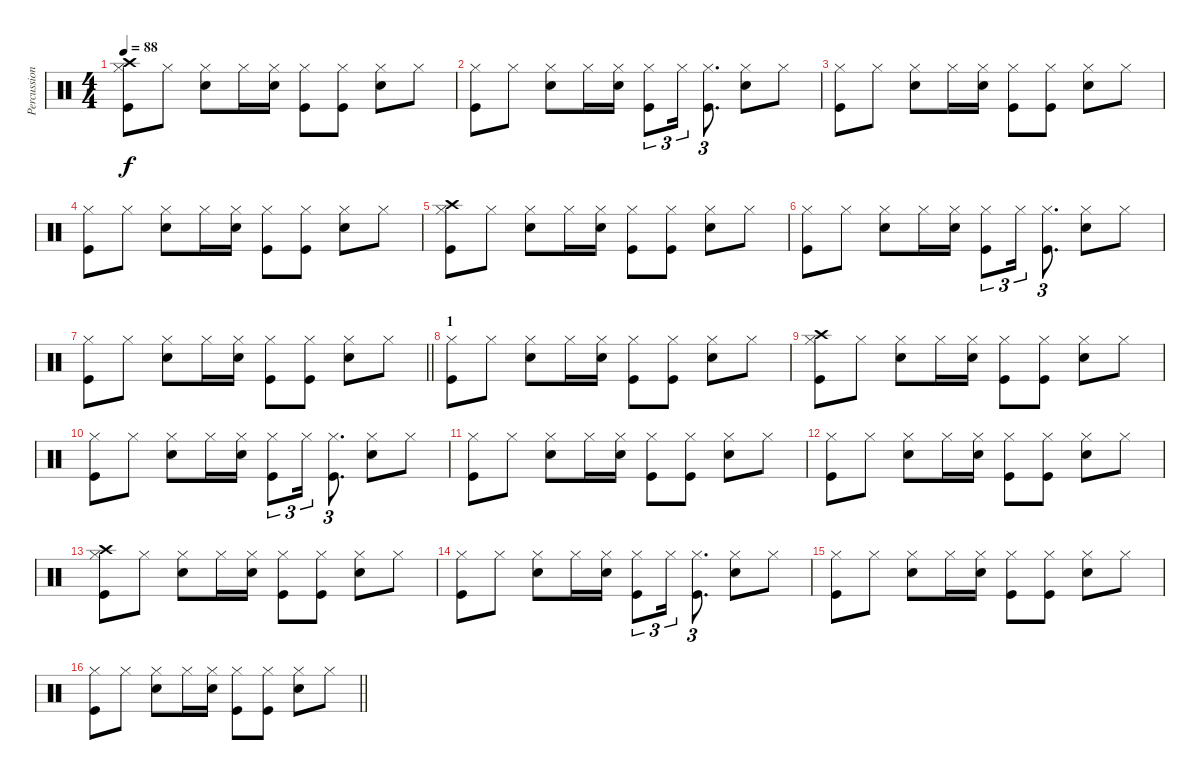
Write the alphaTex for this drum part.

\track ("Percussions" "Percussion") {instrument percussion}
\staff {score}
\articulation defaults
\ts (4 4)
\tempo 88
\clef neutral
\ks c
("Crash high (hit)" "Hi-Hat (closed)" "Kick (hit)").8{dy f} "Hi-Hat (closed)".8 ("Electric Snare (hit)" "Hi-Hat (closed)").8 "Hi-Hat (closed)".16 ("Electric Snare (hit)" "Hi-Hat (closed)").16 ("Hi-Hat (closed)" "Kick (hit)").8 ("Hi-Hat (closed)" "Kick (hit)").8 ("Electric Snare (hit)" "Hi-Hat (closed)").8 "Hi-Hat (closed)".8 |
("Hi-Hat (closed)" "Kick (hit)").8 "Hi-Hat (closed)".8 ("Electric Snare (hit)" "Hi-Hat (closed)").8 "Hi-Hat (closed)".16 ("Electric Snare (hit)" "Hi-Hat (closed)").16 ("Hi-Hat (closed)" "Kick (hit)").8{tu (3 2)} "Hi-Hat (closed)".16{tu (3 2)} ("Hi-Hat (closed)" "Kick (hit)").8{d tu (3 2)} ("Electric Snare (hit)" "Hi-Hat (closed)").8 "Hi-Hat (closed)".8 |
("Hi-Hat (closed)" "Kick (hit)").8 "Hi-Hat (closed)".8 ("Electric Snare (hit)" "Hi-Hat (closed)").8 "Hi-Hat (closed)".16 ("Electric Snare (hit)" "Hi-Hat (closed)").16 ("Hi-Hat (closed)" "Kick (hit)").8 ("Hi-Hat (closed)" "Kick (hit)").8 ("Electric Snare (hit)" "Hi-Hat (closed)").8 "Hi-Hat (closed)".8 |
("Hi-Hat (closed)" "Kick (hit)").8 "Hi-Hat (closed)".8 ("Electric Snare (hit)" "Hi-Hat (closed)").8 "Hi-Hat (closed)".16 ("Electric Snare (hit)" "Hi-Hat (closed)").16 ("Hi-Hat (closed)" "Kick (hit)").8 ("Hi-Hat (closed)" "Kick (hit)").8 ("Electric Snare (hit)" "Hi-Hat (closed)").8 "Hi-Hat (closed)".8 |
("Crash high (hit)" "Hi-Hat (closed)" "Kick (hit)").8 "Hi-Hat (closed)".8 ("Electric Snare (hit)" "Hi-Hat (closed)").8 "Hi-Hat (closed)".16 ("Electric Snare (hit)" "Hi-Hat (closed)").16 ("Hi-Hat (closed)" "Kick (hit)").8 ("Hi-Hat (closed)" "Kick (hit)").8 ("Electric Snare (hit)" "Hi-Hat (closed)").8 "Hi-Hat (closed)".8 |
("Hi-Hat (closed)" "Kick (hit)").8 "Hi-Hat (closed)".8 ("Electric Snare (hit)" "Hi-Hat (closed)").8 "Hi-Hat (closed)".16 ("Electric Snare (hit)" "Hi-Hat (closed)").16 ("Hi-Hat (closed)" "Kick (hit)").8{tu (3 2)} "Hi-Hat (closed)".16{tu (3 2)} ("Hi-Hat (closed)" "Kick (hit)").8{d tu (3 2)} ("Electric Snare (hit)" "Hi-Hat (closed)").8 "Hi-Hat (closed)".8 |
\barLineRight lightlight
("Hi-Hat (closed)" "Kick (hit)").8 "Hi-Hat (closed)".8 ("Electric Snare (hit)" "Hi-Hat (closed)").8 "Hi-Hat (closed)".16 ("Electric Snare (hit)" "Hi-Hat (closed)").16 ("Hi-Hat (closed)" "Kick (hit)").8 ("Hi-Hat (closed)" "Kick (hit)").8 ("Electric Snare (hit)" "Hi-Hat (closed)").8 "Hi-Hat (closed)".8 |
\section ("" "1")
("Hi-Hat (closed)" "Kick (hit)").8 "Hi-Hat (closed)".8 ("Electric Snare (hit)" "Hi-Hat (closed)").8 "Hi-Hat (closed)".16 ("Electric Snare (hit)" "Hi-Hat (closed)").16 ("Hi-Hat (closed)" "Kick (hit)").8 ("Hi-Hat (closed)" "Kick (hit)").8 ("Electric Snare (hit)" "Hi-Hat (closed)").8 "Hi-Hat (closed)".8 |
("Crash high (hit)" "Hi-Hat (closed)" "Kick (hit)").8 "Hi-Hat (closed)".8 ("Electric Snare (hit)" "Hi-Hat (closed)").8 "Hi-Hat (closed)".16 ("Electric Snare (hit)" "Hi-Hat (closed)").16 ("Hi-Hat (closed)" "Kick (hit)").8 ("Hi-Hat (closed)" "Kick (hit)").8 ("Electric Snare (hit)" "Hi-Hat (closed)").8 "Hi-Hat (closed)".8 |
("Hi-Hat (closed)" "Kick (hit)").8 "Hi-Hat (closed)".8 ("Electric Snare (hit)" "Hi-Hat (closed)").8 "Hi-Hat (closed)".16 ("Electric Snare (hit)" "Hi-Hat (closed)").16 ("Hi-Hat (closed)" "Kick (hit)").8{tu (3 2)} "Hi-Hat (closed)".16{tu (3 2)} ("Hi-Hat (closed)" "Kick (hit)").8{d tu (3 2)} ("Electric Snare (hit)" "Hi-Hat (closed)").8 "Hi-Hat (closed)".8 |
("Hi-Hat (closed)" "Kick (hit)").8 "Hi-Hat (closed)".8 ("Electric Snare (hit)" "Hi-Hat (closed)").8 "Hi-Hat (closed)".16 ("Electric Snare (hit)" "Hi-Hat (closed)").16 ("Hi-Hat (closed)" "Kick (hit)").8 ("Hi-Hat (closed)" "Kick (hit)").8 ("Electric Snare (hit)" "Hi-Hat (closed)").8 "Hi-Hat (closed)".8 |
("Hi-Hat (closed)" "Kick (hit)").8 "Hi-Hat (closed)".8 ("Electric Snare (hit)" "Hi-Hat (closed)").8 "Hi-Hat (closed)".16 ("Electric Snare (hit)" "Hi-Hat (closed)").16 ("Hi-Hat (closed)" "Kick (hit)").8 ("Hi-Hat (closed)" "Kick (hit)").8 ("Electric Snare (hit)" "Hi-Hat (closed)").8 "Hi-Hat (closed)".8 |
("Crash high (hit)" "Hi-Hat (closed)" "Kick (hit)").8 "Hi-Hat (closed)".8 ("Electric Snare (hit)" "Hi-Hat (closed)").8 "Hi-Hat (closed)".16 ("Electric Snare (hit)" "Hi-Hat (closed)").16 ("Hi-Hat (closed)" "Kick (hit)").8 ("Hi-Hat (closed)" "Kick (hit)").8 ("Electric Snare (hit)" "Hi-Hat (closed)").8 "Hi-Hat (closed)".8 |
("Hi-Hat (closed)" "Kick (hit)").8 "Hi-Hat (closed)".8 ("Electric Snare (hit)" "Hi-Hat (closed)").8 "Hi-Hat (closed)".16 ("Electric Snare (hit)" "Hi-Hat (closed)").16 ("Hi-Hat (closed)" "Kick (hit)").8{tu (3 2)} "Hi-Hat (closed)".16{tu (3 2)} ("Hi-Hat (closed)" "Kick (hit)").8{d tu (3 2)} ("Electric Snare (hit)" "Hi-Hat (closed)").8 "Hi-Hat (closed)".8 |
("Hi-Hat (closed)" "Kick (hit)").8 "Hi-Hat (closed)".8 ("Electric Snare (hit)" "Hi-Hat (closed)").8 "Hi-Hat (closed)".16 ("Electric Snare (hit)" "Hi-Hat (closed)").16 ("Hi-Hat (closed)" "Kick (hit)").8 ("Hi-Hat (closed)" "Kick (hit)").8 ("Electric Snare (hit)" "Hi-Hat (closed)").8 "Hi-Hat (closed)".8 |
\barLineRight lightlight
("Hi-Hat (closed)" "Kick (hit)").8 "Hi-Hat (closed)".8 ("Electric Snare (hit)" "Hi-Hat (closed)").8 "Hi-Hat (closed)".16 ("Electric Snare (hit)" "Hi-Hat (closed)").16 ("Hi-Hat (closed)" "Kick (hit)").8 ("Hi-Hat (closed)" "Kick (hit)").8 ("Electric Snare (hit)" "Hi-Hat (closed)").8 "Hi-Hat (closed)".8
